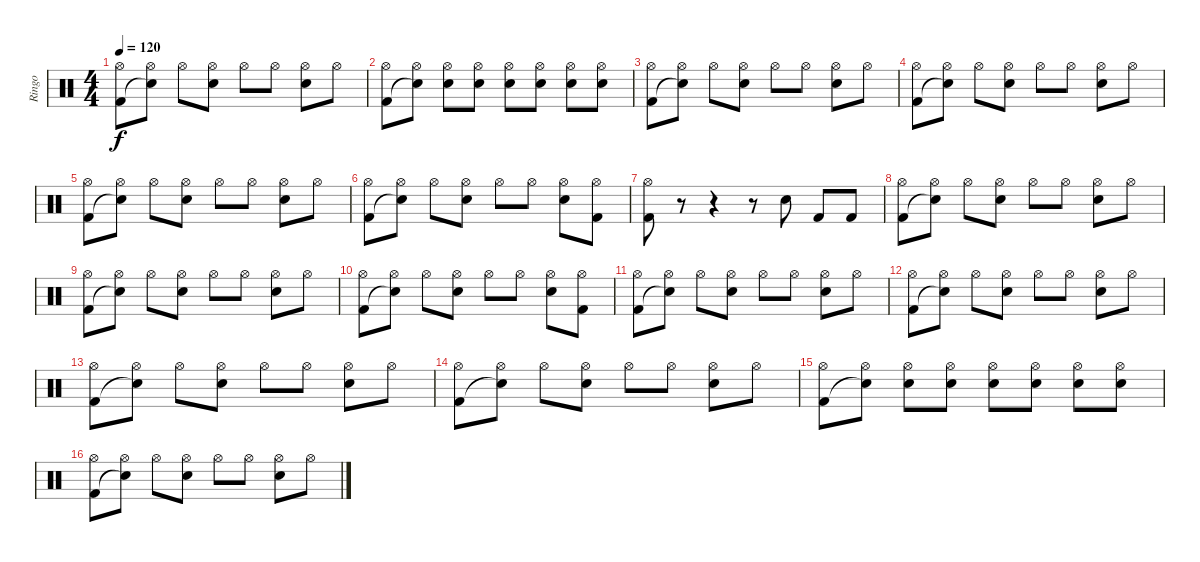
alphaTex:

\track ("Ringo" "Ringo") {instrument percussion}
\staff {score}
\articulation defaults
\ts (4 4)
\tempo 120
\clef neutral
\ks c
("Hi-Hat (open)" "Kick (hit) 2").8{dy f} ("Hi-Hat (open)" "Snare (hit)"{t}).8 "Hi-Hat (open)".8 ("Hi-Hat (open)" "Snare (hit) 2").8 "Hi-Hat (open)".8 "Hi-Hat (open)".8 ("Hi-Hat (open)" "Snare (hit) 2").8 "Hi-Hat (open)".8 |
("Hi-Hat (open)" "Kick (hit) 2").8 ("Hi-Hat (open)" "Snare (hit)"{t}).8 ("Hi-Hat (open)" "Snare (hit) 2").8 ("Hi-Hat (open)" "Snare (hit) 2").8 ("Hi-Hat (open)" "Snare (hit) 2").8 ("Hi-Hat (open)" "Snare (hit) 2").8 ("Hi-Hat (open)" "Snare (hit) 2").8 ("Hi-Hat (open)" "Snare (hit) 2").8 |
("Hi-Hat (open)" "Kick (hit) 2").8 ("Hi-Hat (open)" "Snare (hit)"{t}).8 "Hi-Hat (open)".8 ("Hi-Hat (open)" "Snare (hit) 2").8 "Hi-Hat (open)".8 "Hi-Hat (open)".8 ("Hi-Hat (open)" "Snare (hit) 2").8 "Hi-Hat (open)".8 |
("Hi-Hat (open)" "Kick (hit) 2").8 ("Hi-Hat (open)" "Snare (hit)"{t}).8 "Hi-Hat (open)".8 ("Hi-Hat (open)" "Snare (hit) 2").8 "Hi-Hat (open)".8 "Hi-Hat (open)".8 ("Hi-Hat (open)" "Snare (hit) 2").8 "Hi-Hat (open)".8 |
("Hi-Hat (open)" "Kick (hit) 2").8 ("Hi-Hat (open)" "Snare (hit)"{t}).8 "Hi-Hat (open)".8 ("Hi-Hat (open)" "Snare (hit) 2").8 "Hi-Hat (open)".8 "Hi-Hat (open)".8 ("Hi-Hat (open)" "Snare (hit) 2").8 "Hi-Hat (open)".8 |
("Hi-Hat (open)" "Kick (hit) 2").8 ("Hi-Hat (open)" "Snare (hit)"{t}).8 "Hi-Hat (open)".8 ("Hi-Hat (open)" "Snare (hit) 2").8 "Hi-Hat (open)".8 "Hi-Hat (open)".8 ("Hi-Hat (open)" "Snare (hit) 2").8 ("Hi-Hat (open)" "Kick (hit) 2").8 |
("Hi-Hat (open)" "Kick (hit) 2").8 r.8 r.4 r.8 "Snare (hit) 2".8 "Kick (hit) 2".8 "Kick (hit) 2".8 |
("Hi-Hat (open)" "Kick (hit) 2").8 ("Hi-Hat (open)" "Snare (hit)"{t}).8 "Hi-Hat (open)".8 ("Hi-Hat (open)" "Snare (hit) 2").8 "Hi-Hat (open)".8 "Hi-Hat (open)".8 ("Hi-Hat (open)" "Snare (hit) 2").8 "Hi-Hat (open)".8 |
("Hi-Hat (open)" "Kick (hit) 2").8 ("Hi-Hat (open)" "Snare (hit)"{t}).8 "Hi-Hat (open)".8 ("Hi-Hat (open)" "Snare (hit) 2").8 "Hi-Hat (open)".8 "Hi-Hat (open)".8 ("Hi-Hat (open)" "Snare (hit) 2").8 "Hi-Hat (open)".8 |
("Hi-Hat (open)" "Kick (hit) 2").8 ("Hi-Hat (open)" "Snare (hit)"{t}).8 "Hi-Hat (open)".8 ("Hi-Hat (open)" "Snare (hit) 2").8 "Hi-Hat (open)".8 "Hi-Hat (open)".8 ("Hi-Hat (open)" "Snare (hit) 2").8 ("Hi-Hat (open)" "Kick (hit) 2").8 |
("Hi-Hat (open)" "Kick (hit) 2").8 ("Hi-Hat (open)" "Snare (hit)"{t}).8 "Hi-Hat (open)".8 ("Hi-Hat (open)" "Snare (hit) 2").8 "Hi-Hat (open)".8 "Hi-Hat (open)".8 ("Hi-Hat (open)" "Snare (hit) 2").8 "Hi-Hat (open)".8 |
("Hi-Hat (open)" "Kick (hit) 2").8 ("Hi-Hat (open)" "Snare (hit)"{t}).8 "Hi-Hat (open)".8 ("Hi-Hat (open)" "Snare (hit) 2").8 "Hi-Hat (open)".8 "Hi-Hat (open)".8 ("Hi-Hat (open)" "Snare (hit) 2").8 "Hi-Hat (open)".8 |
("Hi-Hat (open)" "Kick (hit) 2").8 ("Hi-Hat (open)" "Snare (hit)"{t}).8 "Hi-Hat (open)".8 ("Hi-Hat (open)" "Snare (hit) 2").8 "Hi-Hat (open)".8 "Hi-Hat (open)".8 ("Hi-Hat (open)" "Snare (hit) 2").8 "Hi-Hat (open)".8 |
("Hi-Hat (open)" "Kick (hit) 2").8 ("Hi-Hat (open)" "Snare (hit)"{t}).8 "Hi-Hat (open)".8 ("Hi-Hat (open)" "Snare (hit) 2").8 "Hi-Hat (open)".8 "Hi-Hat (open)".8 ("Hi-Hat (open)" "Snare (hit) 2").8 "Hi-Hat (open)".8 |
("Hi-Hat (open)" "Kick (hit) 2").8 ("Hi-Hat (open)" "Snare (hit)"{t}).8 ("Hi-Hat (open)" "Snare (hit) 2").8 ("Hi-Hat (open)" "Snare (hit) 2").8 ("Hi-Hat (open)" "Snare (hit) 2").8 ("Hi-Hat (open)" "Snare (hit) 2").8 ("Hi-Hat (open)" "Snare (hit) 2").8 ("Hi-Hat (open)" "Snare (hit) 2").8 |
("Hi-Hat (open)" "Kick (hit) 2").8 ("Hi-Hat (open)" "Snare (hit)"{t}).8 "Hi-Hat (open)".8 ("Hi-Hat (open)" "Snare (hit) 2").8 "Hi-Hat (open)".8 "Hi-Hat (open)".8 ("Hi-Hat (open)" "Snare (hit) 2").8 "Hi-Hat (open)".8
